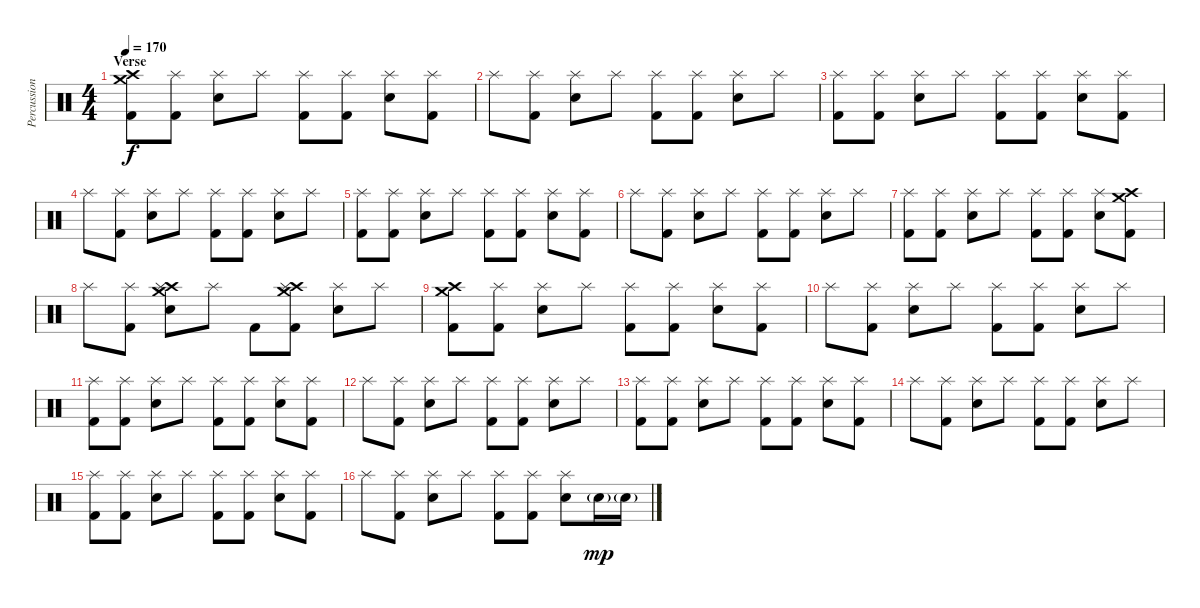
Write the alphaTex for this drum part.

\track ("Percussion" "Percussion") {instrument percussion}
\staff {score}
\articulation defaults
\ts (4 4)
\section ("" "Verse")
\tempo 170
\clef neutral
\ks c
("Crash medium (hit)" "Crash high (hit)" "Kick (hit) 2").8{dy f} ("Splash (hit)" "Kick (hit) 2").8 ("Splash (hit)" "Electric Snare (hit)").8 "Splash (hit)".8 ("Splash (hit)" "Kick (hit) 2").8 ("Splash (hit)" "Kick (hit) 2").8 ("Splash (hit)" "Electric Snare (hit)").8 ("Splash (hit)" "Kick (hit) 2").8 |
"Splash (hit)".8 ("Splash (hit)" "Kick (hit) 2").8 ("Splash (hit)" "Electric Snare (hit)").8 "Splash (hit)".8 ("Splash (hit)" "Kick (hit) 2").8 ("Splash (hit)" "Kick (hit) 2").8 ("Splash (hit)" "Electric Snare (hit)").8 "Splash (hit)".8 |
("Splash (hit)" "Kick (hit) 2").8 ("Splash (hit)" "Kick (hit) 2").8 ("Splash (hit)" "Electric Snare (hit)").8 "Splash (hit)".8 ("Splash (hit)" "Kick (hit) 2").8 ("Splash (hit)" "Kick (hit) 2").8 ("Splash (hit)" "Electric Snare (hit)").8 ("Splash (hit)" "Kick (hit) 2").8 |
"Splash (hit)".8 ("Splash (hit)" "Kick (hit) 2").8 ("Splash (hit)" "Electric Snare (hit)").8 "Splash (hit)".8 ("Splash (hit)" "Kick (hit) 2").8 ("Splash (hit)" "Kick (hit) 2").8 ("Splash (hit)" "Electric Snare (hit)").8 "Splash (hit)".8 |
("Splash (hit)" "Kick (hit) 2").8 ("Splash (hit)" "Kick (hit) 2").8 ("Splash (hit)" "Electric Snare (hit)").8 "Splash (hit)".8 ("Splash (hit)" "Kick (hit) 2").8 ("Splash (hit)" "Kick (hit) 2").8 ("Splash (hit)" "Electric Snare (hit)").8 ("Splash (hit)" "Kick (hit) 2").8 |
"Splash (hit)".8 ("Splash (hit)" "Kick (hit) 2").8 ("Splash (hit)" "Electric Snare (hit)").8 "Splash (hit)".8 ("Splash (hit)" "Kick (hit) 2").8 ("Splash (hit)" "Kick (hit) 2").8 ("Splash (hit)" "Electric Snare (hit)").8 "Splash (hit)".8 |
("Splash (hit)" "Kick (hit) 2").8 ("Splash (hit)" "Kick (hit) 2").8 ("Splash (hit)" "Electric Snare (hit)").8 "Splash (hit)".8 ("Splash (hit)" "Kick (hit) 2").8 ("Splash (hit)" "Kick (hit) 2").8 ("Splash (hit)" "Electric Snare (hit)").8 ("Crash medium (hit)" "Crash high (hit)" "Kick (hit) 2").8 |
"Splash (hit)".8 ("Splash (hit)" "Kick (hit) 2").8 ("Crash medium (hit)" "Crash high (hit)" "Splash (hit)" "Electric Snare (hit)").8 "Splash (hit)".8 "Kick (hit) 2".8 ("Crash medium (hit)" "Crash high (hit)" "Splash (hit)" "Kick (hit) 2").8 ("Splash (hit)" "Electric Snare (hit)").8 "Splash (hit)".8 |
("Crash medium (hit)" "Crash high (hit)" "Kick (hit) 2").8 ("Splash (hit)" "Kick (hit) 2").8 ("Splash (hit)" "Electric Snare (hit)").8 "Splash (hit)".8 ("Splash (hit)" "Kick (hit) 2").8 ("Splash (hit)" "Kick (hit) 2").8 ("Splash (hit)" "Electric Snare (hit)").8 ("Splash (hit)" "Kick (hit) 2").8 |
"Splash (hit)".8 ("Splash (hit)" "Kick (hit) 2").8 ("Splash (hit)" "Electric Snare (hit)").8 "Splash (hit)".8 ("Splash (hit)" "Kick (hit) 2").8 ("Splash (hit)" "Kick (hit) 2").8 ("Splash (hit)" "Electric Snare (hit)").8 "Splash (hit)".8 |
("Splash (hit)" "Kick (hit) 2").8 ("Splash (hit)" "Kick (hit) 2").8 ("Splash (hit)" "Electric Snare (hit)").8 "Splash (hit)".8 ("Splash (hit)" "Kick (hit) 2").8 ("Splash (hit)" "Kick (hit) 2").8 ("Splash (hit)" "Electric Snare (hit)").8 ("Splash (hit)" "Kick (hit) 2").8 |
"Splash (hit)".8 ("Splash (hit)" "Kick (hit) 2").8 ("Splash (hit)" "Electric Snare (hit)").8 "Splash (hit)".8 ("Splash (hit)" "Kick (hit) 2").8 ("Splash (hit)" "Kick (hit) 2").8 ("Splash (hit)" "Electric Snare (hit)").8 "Splash (hit)".8 |
("Splash (hit)" "Kick (hit) 2").8 ("Splash (hit)" "Kick (hit) 2").8 ("Splash (hit)" "Electric Snare (hit)").8 "Splash (hit)".8 ("Splash (hit)" "Kick (hit) 2").8 ("Splash (hit)" "Kick (hit) 2").8 ("Splash (hit)" "Electric Snare (hit)").8 ("Splash (hit)" "Kick (hit) 2").8 |
"Splash (hit)".8 ("Splash (hit)" "Kick (hit) 2").8 ("Splash (hit)" "Electric Snare (hit)").8 "Splash (hit)".8 ("Splash (hit)" "Kick (hit) 2").8 ("Splash (hit)" "Kick (hit) 2").8 ("Splash (hit)" "Electric Snare (hit)").8 "Splash (hit)".8 |
("Splash (hit)" "Kick (hit) 2").8 ("Splash (hit)" "Kick (hit) 2").8 ("Splash (hit)" "Electric Snare (hit)").8 "Splash (hit)".8 ("Splash (hit)" "Kick (hit) 2").8 ("Splash (hit)" "Kick (hit) 2").8 ("Splash (hit)" "Electric Snare (hit)").8 ("Splash (hit)" "Kick (hit) 2").8 |
"Splash (hit)".8 ("Splash (hit)" "Kick (hit) 2").8 ("Splash (hit)" "Electric Snare (hit)").8 "Splash (hit)".8 ("Splash (hit)" "Kick (hit) 2").8 ("Splash (hit)" "Kick (hit) 2").8 ("Splash (hit)" "Electric Snare (hit)").8 "Electric Snare (hit)"{g}.16{dy mp} "Electric Snare (hit)"{g}.16
